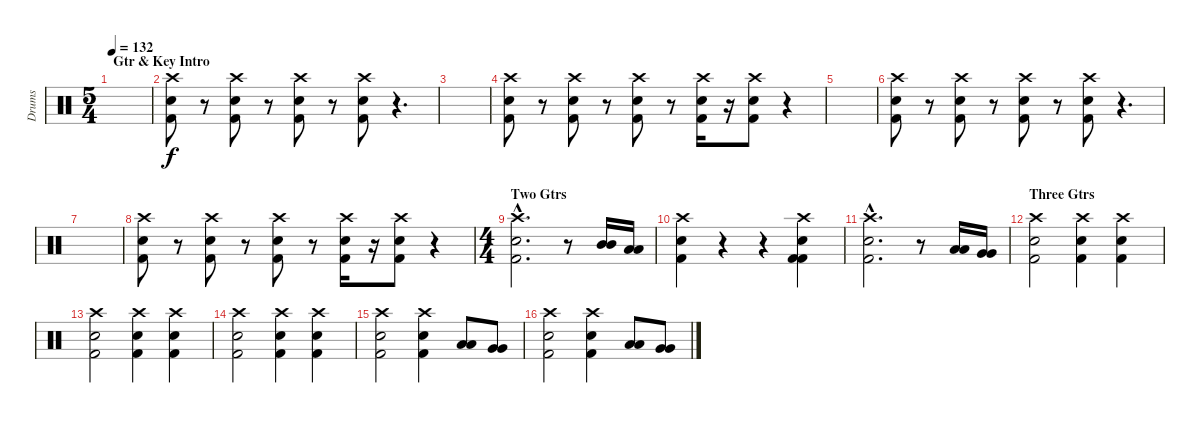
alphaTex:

\track ("Drums" "Drums") {instrument percussion}
\staff {score}
\articulation defaults
\ts (5 4)
\section ("" "Gtr & Key Intro")
\tempo 132
\clef neutral
\ks c
|
("Crash high (hit)" "Snare (hit) 2" "Kick (hit) 2").8 r.8 ("Crash high (hit)" "Snare (hit) 2" "Kick (hit) 2").8 r.8 ("Crash high (hit)" "Snare (hit) 2" "Kick (hit) 2").8 r.8 ("Crash high (hit)" "Snare (hit) 2" "Kick (hit) 2").8 r.4{d} |
|
("Crash high (hit)" "Snare (hit) 2" "Kick (hit) 2").8 r.8 ("Crash high (hit)" "Snare (hit) 2" "Kick (hit) 2").8 r.8 ("Crash high (hit)" "Snare (hit) 2" "Kick (hit) 2").8 r.8 ("Crash high (hit)" "Snare (hit) 2" "Kick (hit) 2").16 r.16 ("Crash high (hit)" "Snare (hit) 2" "Kick (hit) 2").8 r.4 |
|
("Crash high (hit)" "Snare (hit) 2" "Kick (hit) 2").8 r.8 ("Crash high (hit)" "Snare (hit) 2" "Kick (hit) 2").8 r.8 ("Crash high (hit)" "Snare (hit) 2" "Kick (hit) 2").8 r.8 ("Crash high (hit)" "Snare (hit) 2" "Kick (hit) 2").8 r.4{d} |
|
("Crash high (hit)" "Snare (hit) 2" "Kick (hit) 2").8 r.8 ("Crash high (hit)" "Snare (hit) 2" "Kick (hit) 2").8 r.8 ("Crash high (hit)" "Snare (hit) 2" "Kick (hit) 2").8 r.8 ("Crash high (hit)" "Snare (hit) 2" "Kick (hit) 2").16 r.16 ("Crash high (hit)" "Snare (hit) 2" "Kick (hit) 2").8 r.4 |
\ts (4 4)
\section ("" "Two Gtrs")
("Crash high (hit)"{hac} "Snare (hit) 2"{hac} "Kick (hit) 2"{hac}).2{d} r.8 ("Mid Tom (hit)" "Mid Tom (hit)").16 ("Low Tom (hit)" "Low Tom (hit)").16 |
("Crash high (hit)" "Snare (hit) 2" "Kick (hit) 2").4 r.4 r.4 ("Crash high (hit)" "Snare (hit) 2" "Kick (hit) 2" "Kick (hit) 2").4 |
("Crash high (hit)"{hac} "Snare (hit) 2"{hac} "Kick (hit) 2"{hac}).2{d} r.8 ("Low Tom (hit)" "Low Tom (hit)").16 ("Very Low Tom (hit)" "Very Low Tom (hit)").16 |
\section ("" "Three Gtrs")
("Crash high (hit)" "Snare (hit) 2" "Kick (hit) 2").2 ("Crash high (hit)" "Snare (hit) 2" "Kick (hit) 2").4 ("Crash high (hit)" "Snare (hit) 2" "Kick (hit) 2").4 |
("Crash high (hit)" "Snare (hit) 2" "Kick (hit) 2").2 ("Crash high (hit)" "Snare (hit) 2" "Kick (hit) 2").4 ("Crash high (hit)" "Snare (hit) 2" "Kick (hit) 2").4 |
("Crash high (hit)" "Snare (hit) 2" "Kick (hit) 2").2 ("Crash high (hit)" "Snare (hit) 2" "Kick (hit) 2").4 ("Crash high (hit)" "Snare (hit) 2" "Kick (hit) 2").4 |
("Crash high (hit)" "Snare (hit) 2" "Kick (hit) 2").2 ("Crash high (hit)" "Snare (hit) 2" "Kick (hit) 2").4 ("Low Tom (hit)" "Low Tom (hit)").8 ("Very Low Tom (hit)" "Very Low Tom (hit)").8 |
("Crash high (hit)" "Snare (hit) 2" "Kick (hit) 2").2 ("Crash high (hit)" "Snare (hit) 2" "Kick (hit) 2").4 ("Low Tom (hit)" "Low Tom (hit)").8 ("Very Low Tom (hit)" "Very Low Tom (hit)").8
